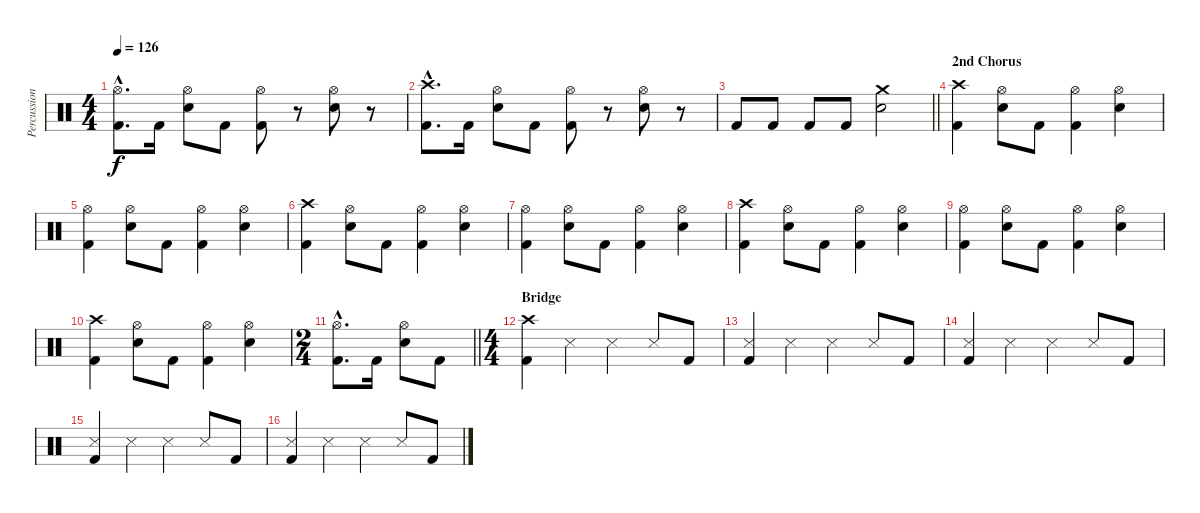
\track ("Percussion" "Percussion") {instrument percussion}
\staff {score}
\articulation defaults
\ts (4 4)
\tempo 126
\clef neutral
\ks c
("Hi-Hat (open)"{hac} "Kick (hit) 2"{hac}).8{d dy f} "Kick (hit) 2".16 ("Hi-Hat (open)" "Snare (hit) 2").8 "Kick (hit) 2".8 ("Hi-Hat (open)" "Kick (hit) 2").8 r.8 ("Hi-Hat (open)" "Snare (hit) 2").8 r.8 |
("Crash high (hit)"{hac} "Kick (hit) 2"{hac}).8{d} "Kick (hit) 2".16 ("Hi-Hat (open)" "Snare (hit) 2").8 "Kick (hit) 2".8 ("Hi-Hat (open)" "Kick (hit) 2").8 r.8 ("Hi-Hat (open)" "Snare (hit) 2").8 r.8 |
\barLineRight lightlight "Kick (hit) 2".8 "Kick (hit) 2".8 "Kick (hit) 2".8 "Kick (hit) 2".8
("Crash medium (hit)" "Snare (hit) 2").2 |
\section ("" "2nd Chorus")
("Crash high (hit)" "Kick (hit) 2").4 ("Hi-Hat (open)" "Snare (hit) 2").8 "Kick (hit) 2".8 ("Hi-Hat (open)" "Kick (hit) 2").4 ("Hi-Hat (open)" "Snare (hit) 2").4 |
("Hi-Hat (open)" "Kick (hit) 2").4 ("Hi-Hat (open)" "Snare (hit) 2").8 "Kick (hit) 2".8 ("Hi-Hat (open)" "Kick (hit) 2").4 ("Hi-Hat (open)" "Snare (hit) 2").4 |
("Crash high (hit)" "Kick (hit) 2").4 ("Hi-Hat (open)" "Snare (hit) 2").8 "Kick (hit) 2".8 ("Hi-Hat (open)" "Kick (hit) 2").4 ("Hi-Hat (open)" "Snare (hit) 2").4 |
("Hi-Hat (open)" "Kick (hit) 2").4 ("Hi-Hat (open)" "Snare (hit) 2").8 "Kick (hit) 2".8 ("Hi-Hat (open)" "Kick (hit) 2").4 ("Hi-Hat (open)" "Snare (hit) 2").4 |
("Crash high (hit)" "Kick (hit) 2").4 ("Hi-Hat (open)" "Snare (hit) 2").8 "Kick (hit) 2".8 ("Hi-Hat (open)" "Kick (hit) 2").4 ("Hi-Hat (open)" "Snare (hit) 2").4 |
("Hi-Hat (open)" "Kick (hit) 2").4 ("Hi-Hat (open)" "Snare (hit) 2").8 "Kick (hit) 2".8 ("Hi-Hat (open)" "Kick (hit) 2").4 ("Hi-Hat (open)" "Snare (hit) 2").4 |
("Crash high (hit)" "Kick (hit) 2").4 ("Hi-Hat (open)" "Snare (hit) 2").8 "Kick (hit) 2".8 ("Hi-Hat (open)" "Kick (hit) 2").4 ("Hi-Hat (open)" "Snare (hit) 2").4 |
\ts (2 4)
\barLineRight lightlight
("Hi-Hat (open)"{hac} "Kick (hit) 2"{hac}).8{d} "Kick (hit) 2".16 ("Hi-Hat (open)" "Snare (hit) 2").8 "Kick (hit) 2".8 |
\ts (4 4)
\section ("" "Bridge")
("Crash high (hit)" "Kick (hit) 2").4 "Snare (side stick) 3".4 "Snare (side stick) 3".4 "Snare (side stick) 3".8 "Kick (hit) 2".8 |
("Snare (side stick) 3" "Kick (hit) 2").4 "Snare (side stick) 3".4 "Snare (side stick) 3".4 "Snare (side stick) 3".8 "Kick (hit) 2".8 |
("Snare (side stick) 3" "Kick (hit) 2").4 "Snare (side stick) 3".4 "Snare (side stick) 3".4 "Snare (side stick) 3".8 "Kick (hit) 2".8 |
("Snare (side stick) 3" "Kick (hit) 2").4 "Snare (side stick) 3".4 "Snare (side stick) 3".4 "Snare (side stick) 3".8 "Kick (hit) 2".8 |
("Snare (side stick) 3" "Kick (hit) 2").4 "Snare (side stick) 3".4 "Snare (side stick) 3".4 "Snare (side stick) 3".8 "Kick (hit) 2".8
